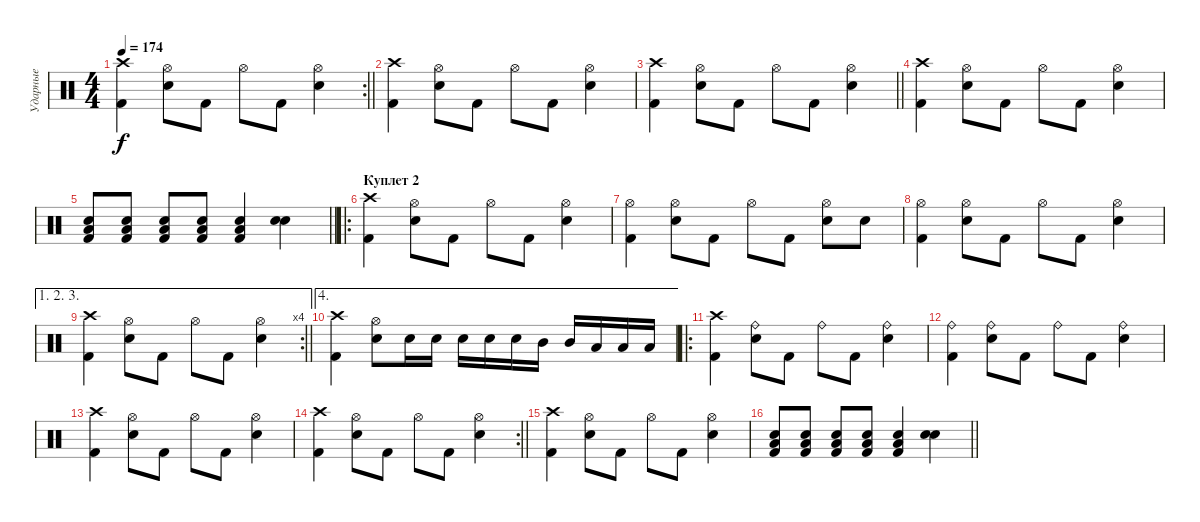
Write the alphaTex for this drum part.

\track ("Ударные" "Ударные") {instrument percussion}
\staff {score}
\articulation defaults
\rc 2
\ts (4 4)
\tempo 174
\clef neutral
\barLineRight lightlight
\ks c
("Crash high (hit)" "Kick (hit) 2").4{dy f} ("Hi-Hat (open)" "Electric Snare (hit)").8 "Kick (hit) 2".8 "Hi-Hat (open)".8 "Kick (hit) 2".8 ("Hi-Hat (open)" "Electric Snare (hit)").4 |
("Crash high (hit)" "Kick (hit) 2").4 ("Hi-Hat (open)" "Electric Snare (hit)").8 "Kick (hit) 2".8 "Hi-Hat (open)".8 "Kick (hit) 2".8 ("Hi-Hat (open)" "Electric Snare (hit)").4 |
\barLineRight lightlight
("Crash high (hit)" "Kick (hit) 2").4 ("Hi-Hat (open)" "Electric Snare (hit)").8 "Kick (hit) 2".8 "Hi-Hat (open)".8 "Kick (hit) 2".8 ("Hi-Hat (open)" "Electric Snare (hit)").4 |
("Crash high (hit)" "Kick (hit) 2").4 ("Hi-Hat (open)" "Electric Snare (hit)").8 "Kick (hit) 2".8 "Hi-Hat (open)".8 "Kick (hit) 2".8 ("Hi-Hat (open)" "Electric Snare (hit)").4 |
\barLineRight lightlight
("Low Tom (hit)" "Electric Snare (hit)" "Kick (hit) 2").8 ("Low Tom (hit)" "Electric Snare (hit)" "Kick (hit) 2").8 ("Low Tom (hit)" "Electric Snare (hit)" "Kick (hit) 2").8 ("Low Tom (hit)" "Electric Snare (hit)" "Kick (hit) 2").8 ("Low Tom (hit)" "Electric Snare (hit)" "Kick (hit) 2").4 ("Electric Snare (hit)" "Electric Snare (hit)").4 |
\ro
\section ("" "Куплет 2")
("Crash high (hit)" "Kick (hit) 2").4 ("Hi-Hat (open)" "Electric Snare (hit)").8 "Kick (hit) 2".8 "Hi-Hat (open)".8 "Kick (hit) 2".8 ("Hi-Hat (open)" "Electric Snare (hit)").4 |
("Hi-Hat (open)" "Kick (hit) 2").4 ("Hi-Hat (open)" "Electric Snare (hit)").8 "Kick (hit) 2".8 "Hi-Hat (open)".8 "Kick (hit) 2".8 ("Hi-Hat (open)" "Electric Snare (hit)").8 "Electric Snare (hit)".8 |
("Hi-Hat (open)" "Kick (hit) 2").4 ("Hi-Hat (open)" "Electric Snare (hit)").8 "Kick (hit) 2".8 "Hi-Hat (open)".8 "Kick (hit) 2".8 ("Hi-Hat (open)" "Electric Snare (hit)").4 |
\ae (1 2 3)
\rc 4
\barLineRight lightlight
("Crash high (hit)" "Kick (hit) 2").4 ("Hi-Hat (open)" "Electric Snare (hit)").8 "Kick (hit) 2".8 "Hi-Hat (open)".8 "Kick (hit) 2".8 ("Hi-Hat (open)" "Electric Snare (hit)").4 |
\ae 4
("Crash high (hit)" "Kick (hit) 2").4 ("Hi-Hat (open)" "Electric Snare (hit)").8 "Electric Snare (hit)".16 "Electric Snare (hit)".16 "Electric Snare (hit)".16 "Electric Snare (hit)".16 "Electric Snare (hit)".16 "Mid Tom (hit)".16 "Mid Tom (hit)".16 "Low Tom (hit)".16 "Low Tom (hit)".16 "Low Tom (hit)".16 |
\ro
("Crash high (hit)" "Kick (hit) 2").4 ("Ride (bell)" "Electric Snare (hit)").8 "Kick (hit) 2".8 "Ride (bell)".8 "Kick (hit) 2".8 ("Ride (bell)" "Electric Snare (hit)").4 |
("Ride (bell)" "Kick (hit) 2").4 ("Ride (bell)" "Electric Snare (hit)").8 "Kick (hit) 2".8 "Ride (bell)".8 "Kick (hit) 2".8 ("Ride (bell)" "Electric Snare (hit)").4 |
("Crash high (hit)" "Kick (hit) 2").4 ("Hi-Hat (open)" "Electric Snare (hit)").8 "Kick (hit) 2".8 "Hi-Hat (open)".8 "Kick (hit) 2".8 ("Hi-Hat (open)" "Electric Snare (hit)").4 |
\rc 2
\barLineRight lightlight
("Crash high (hit)" "Kick (hit) 2").4 ("Hi-Hat (open)" "Electric Snare (hit)").8 "Kick (hit) 2".8 "Hi-Hat (open)".8 "Kick (hit) 2".8 ("Hi-Hat (open)" "Electric Snare (hit)").4 |
("Crash high (hit)" "Kick (hit) 2").4 ("Hi-Hat (open)" "Electric Snare (hit)").8 "Kick (hit) 2".8 "Hi-Hat (open)".8 "Kick (hit) 2".8 ("Hi-Hat (open)" "Electric Snare (hit)").4 |
\barLineRight lightlight
("Low Tom (hit)" "Electric Snare (hit)" "Kick (hit) 2").8 ("Low Tom (hit)" "Electric Snare (hit)" "Kick (hit) 2").8 ("Low Tom (hit)" "Electric Snare (hit)" "Kick (hit) 2").8 ("Low Tom (hit)" "Electric Snare (hit)" "Kick (hit) 2").8 ("Low Tom (hit)" "Electric Snare (hit)" "Kick (hit) 2").4 ("Electric Snare (hit)" "Electric Snare (hit)").4
